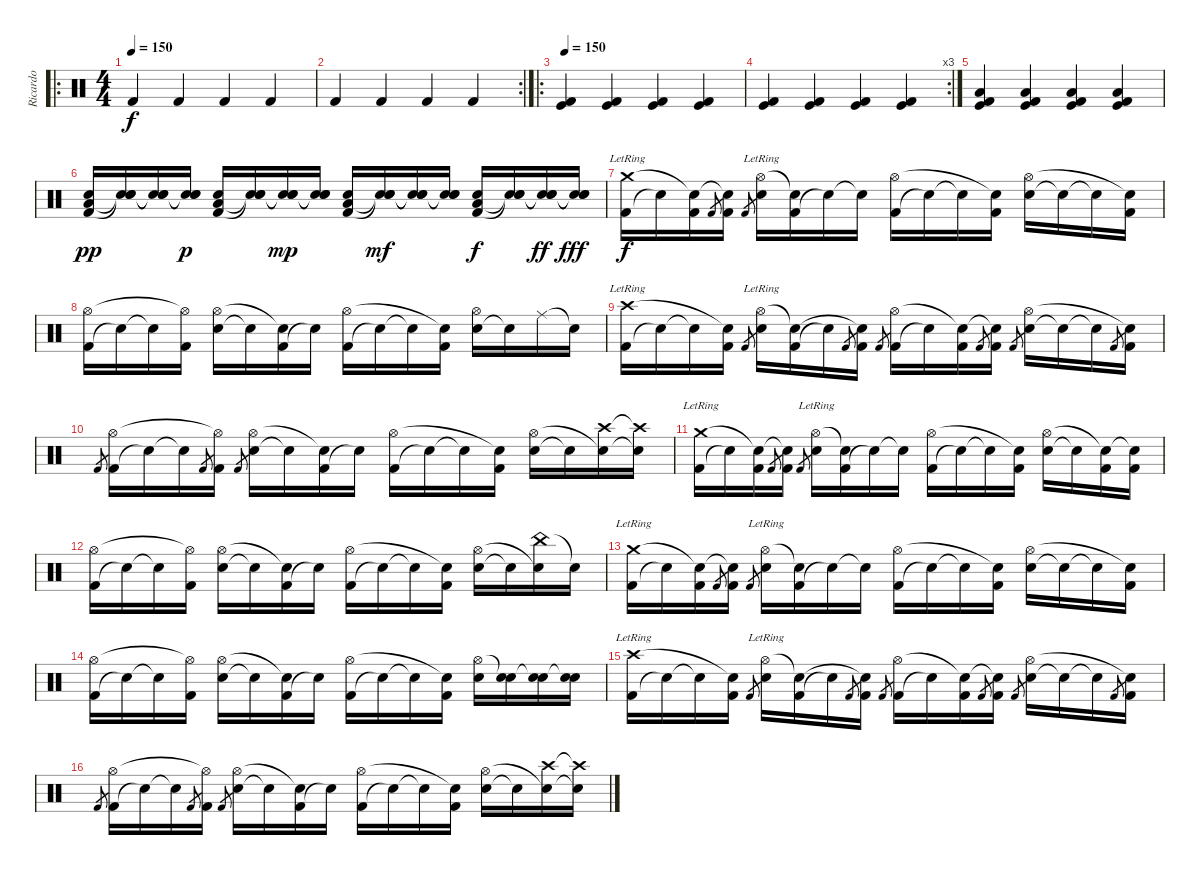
\track ("Ricardo" "Ricardo") {instrument percussion}
\staff {score}
\articulation defaults
\ro
\ts (4 4)
\tempo 150
\clef neutral
\ks c "Kick (hit) 2".4{dy f} "Kick (hit) 2".4 "Kick (hit) 2".4 "Kick (hit) 2".4
|
\rc 2 "Kick (hit) 2".4 "Kick (hit) 2".4 "Kick (hit) 2".4 "Kick (hit) 2".4
|
\ro
\tempo 150
("Kick (hit) 2" "Kick (hit)").4 ("Kick (hit) 2" "Kick (hit)").4 ("Kick (hit) 2" "Kick (hit)").4 ("Kick (hit) 2" "Kick (hit)").4 |
\rc 3
("Kick (hit) 2" "Kick (hit)").4 ("Kick (hit) 2" "Kick (hit)").4 ("Kick (hit) 2" "Kick (hit)").4 ("Kick (hit) 2" "Kick (hit)").4 |
("Kick (hit) 2" "Low Floor Tom (hit)" "Kick (hit)").4 ("Kick (hit) 2" "Low Floor Tom (hit)" "Kick (hit)").4 ("Kick (hit) 2" "Low Floor Tom (hit)" "Kick (hit)").4 ("Kick (hit) 2" "Low Floor Tom (hit)" "Kick (hit)").4 |
("Kick (hit) 2" "Snare (hit) 2" "Low Floor Tom (hit)").16{dy pp} ("Snare (hit)"{t} "Snare (hit) 2" "Snare (hit)"{t}).16 ("Snare (hit)"{t} "Snare (hit) 2" "Snare (hit)"{t}).16 ("Snare (hit)"{t} "Snare (hit) 2" "Snare (hit)"{t}).16{dy p} ("Kick (hit) 2" "Snare (hit) 2" "Low Floor Tom (hit)").16 ("Snare (hit)"{t} "Snare (hit) 2" "Snare (hit)"{t}).16 ("Snare (hit)"{t} "Snare (hit) 2" "Snare (hit)"{t}).16{dy mp} ("Snare (hit)"{t} "Snare (hit) 2" "Snare (hit)"{t}).16 ("Kick (hit) 2" "Snare (hit) 2" "Low Floor Tom (hit)").16 ("Snare (hit)"{t} "Snare (hit) 2" "Snare (hit)"{t}).16{dy mf} ("Snare (hit)"{t} "Snare (hit) 2" "Snare (hit)"{t}).16 ("Snare (hit)"{t} "Snare (hit) 2" "Snare (hit)"{t}).16 ("Kick (hit) 2" "Snare (hit) 2" "Low Floor Tom (hit)").16{dy f} ("Snare (hit)"{t} "Snare (hit) 2" "Snare (hit)"{t}).16 ("Snare (hit)"{t} "Snare (hit) 2" "Snare (hit)"{t}).16{dy ff} ("Snare (hit)"{t} "Snare (hit) 2" "Snare (hit)"{t}).16{dy fff} |
("Kick (hit) 2" "Crash medium (hit)"{lr}).16{dy f} "Snare (hit)"{t}.16 ("Kick (hit) 2" "Snare (hit)"{t}).16 "Kick (hit) 2".8{gr} ("Kick (hit) 2" "Snare (hit)"{t}).16 "Kick (hit) 2".8{gr} ("Snare (hit) 2" "Hi-Hat (open)"{lr}).16 ("Kick (hit) 2" "Snare (hit)"{t}).16 "Snare (hit)"{t}.16 "Snare (hit)"{t}.16 ("Kick (hit) 2" "Hi-Hat (open)").16 "Snare (hit)"{t}.16 "Snare (hit)"{t}.16 ("Kick (hit) 2" "Snare (hit)"{t}).16 ("Snare (hit) 2" "Hi-Hat (open)").16 "Snare (hit)"{t}.16 "Snare (hit)"{t}.16 ("Kick (hit) 2" "Snare (hit)"{t}).16 |
("Kick (hit) 2" "Hi-Hat (open)").16 "Snare (hit)"{t}.16 "Snare (hit)"{t}.16 ("Kick (hit) 2" "Hi-Hat (open)"{t}).16 ("Snare (hit) 2" "Hi-Hat (open)").16 "Snare (hit)"{t}.16 ("Kick (hit) 2" "Snare (hit)"{t}).16 "Snare (hit)"{t}.16 ("Kick (hit) 2" "Hi-Hat (open)").16 "Snare (hit)"{t}.16 "Snare (hit)"{t}.16 ("Kick (hit) 2" "Snare (hit)"{t}).16 ("Snare (hit) 2" "Hi-Hat (open)").16 "Snare (hit)"{t}.16 "Ride (middle)".16 "Snare (hit)"{t}.16 |
("Kick (hit) 2" "Crash high (hit)"{lr}).16 "Snare (hit)"{t}.16 "Snare (hit)"{t}.16 ("Kick (hit) 2" "Snare (hit)"{t}).16 "Kick (hit) 2".8{gr} ("Snare (hit) 2" "Hi-Hat (open)"{lr}).16 ("Kick (hit) 2" "Snare (hit)"{t}).16 "Snare (hit)"{t}.16 "Kick (hit) 2".8{gr} ("Kick (hit) 2" "Snare (hit)"{t}).16 "Kick (hit) 2".8{gr} ("Kick (hit) 2" "Hi-Hat (open)").16 "Snare (hit)"{t}.16 ("Kick (hit) 2" "Snare (hit)"{t}).16 "Kick (hit) 2".8{gr} ("Kick (hit) 2" "Snare (hit)"{t}).16 "Kick (hit) 2".8{gr} ("Snare (hit) 2" "Hi-Hat (open)").16 "Snare (hit)"{t}.16 "Snare (hit)"{t}.16 "Kick (hit) 2".8{gr} ("Kick (hit) 2" "Snare (hit)"{t}).16 |
"Kick (hit) 2".8{gr} ("Kick (hit) 2" "Hi-Hat (open)").16 "Snare (hit)"{t}.16 "Snare (hit)"{t}.16 "Kick (hit) 2".8{gr} ("Kick (hit) 2" "Hi-Hat (open)"{t}).16 "Kick (hit) 2".8{gr} ("Snare (hit) 2" "Hi-Hat (open)").16 "Snare (hit)"{t}.16 ("Kick (hit) 2" "Snare (hit)"{t}).16 "Snare (hit)"{t}.16 ("Kick (hit) 2" "Hi-Hat (open)").16 "Snare (hit)"{t}.16 "Snare (hit)"{t}.16 ("Kick (hit) 2" "Snare (hit)"{t}).16 ("Snare (hit) 2" "Hi-Hat (open)").16 "Snare (hit)"{t}.16 ("Crash high (hit)" "Snare (hit)"{t}).16 ("Crash high (hit)"{t} "Snare (hit)"{t}).16 |
("Kick (hit) 2" "Crash medium (hit)"{lr}).16 "Snare (hit)"{t}.16 ("Kick (hit) 2" "Snare (hit)"{t}).16 "Kick (hit) 2".8{gr} ("Kick (hit) 2" "Snare (hit)"{t}).16 "Kick (hit) 2".8{gr} ("Snare (hit) 2" "Hi-Hat (open)"{lr}).16 ("Kick (hit) 2" "Snare (hit)"{t}).16 "Snare (hit)"{t}.16 "Snare (hit)"{t}.16 ("Kick (hit) 2" "Hi-Hat (open)").16 "Snare (hit)"{t}.16 "Snare (hit)"{t}.16 ("Kick (hit) 2" "Snare (hit)"{t}).16 ("Snare (hit) 2" "Hi-Hat (open)").16 "Snare (hit)"{t}.16 ("Kick (hit) 2" "Snare (hit)"{t}).16 ("Kick (hit) 2" "Snare (hit)"{t}).16 |
("Kick (hit) 2" "Hi-Hat (open)").16 "Snare (hit)"{t}.16 "Snare (hit)"{t}.16 ("Kick (hit) 2" "Hi-Hat (open)"{t}).16 ("Snare (hit) 2" "Hi-Hat (open)").16 "Snare (hit)"{t}.16 ("Kick (hit) 2" "Snare (hit)"{t}).16 "Snare (hit)"{t}.16 ("Kick (hit) 2" "Hi-Hat (open)").16 "Snare (hit)"{t}.16 "Snare (hit)"{t}.16 ("Kick (hit) 2" "Snare (hit)"{t}).16 ("Snare (hit) 2" "Hi-Hat (open)").16 "Snare (hit)"{t}.16 ("China (hit)" "Snare (hit)"{t}).16 "Snare (hit)"{t}.16 |
("Kick (hit) 2" "Crash medium (hit)"{lr}).16 "Snare (hit)"{t}.16 ("Kick (hit) 2" "Snare (hit)"{t}).16 "Kick (hit) 2".8{gr} ("Kick (hit) 2" "Snare (hit)"{t}).16 "Kick (hit) 2".8{gr} ("Snare (hit) 2" "Hi-Hat (open)"{lr}).16 ("Kick (hit) 2" "Snare (hit)"{t}).16 "Snare (hit)"{t}.16 "Snare (hit)"{t}.16 ("Kick (hit) 2" "Hi-Hat (open)").16 "Snare (hit)"{t}.16 "Snare (hit)"{t}.16 ("Kick (hit) 2" "Snare (hit)"{t}).16 ("Snare (hit) 2" "Hi-Hat (open)").16 "Snare (hit)"{t}.16 "Snare (hit)"{t}.16 ("Kick (hit) 2" "Snare (hit)"{t}).16 |
("Kick (hit) 2" "Hi-Hat (open)").16 "Snare (hit)"{t}.16 "Snare (hit)"{t}.16 ("Kick (hit) 2" "Hi-Hat (open)"{t}).16 ("Snare (hit) 2" "Hi-Hat (open)").16 "Snare (hit)"{t}.16 ("Kick (hit) 2" "Snare (hit)"{t}).16 "Snare (hit)"{t}.16 ("Kick (hit) 2" "Hi-Hat (open)").16 "Snare (hit)"{t}.16 "Snare (hit)"{t}.16 ("Kick (hit) 2" "Snare (hit)"{t}).16 ("Snare (hit) 2" "Hi-Hat (open)").16 ("Snare (hit) 2" "Snare (hit)"{t}).16 ("Snare (hit) 2" "Snare (hit)"{t}).16 ("Snare (hit) 2" "Snare (hit)"{t}).16 |
("Kick (hit) 2" "Crash high (hit)"{lr}).16 "Snare (hit)"{t}.16 "Snare (hit)"{t}.16 ("Kick (hit) 2" "Snare (hit)"{t}).16 "Kick (hit) 2".8{gr} ("Snare (hit) 2" "Hi-Hat (open)"{lr}).16 ("Kick (hit) 2" "Snare (hit)"{t}).16 "Snare (hit)"{t}.16 "Kick (hit) 2".8{gr} ("Kick (hit) 2" "Snare (hit)"{t}).16 "Kick (hit) 2".8{gr} ("Kick (hit) 2" "Hi-Hat (open)").16 "Snare (hit)"{t}.16 ("Kick (hit) 2" "Snare (hit)"{t}).16 "Kick (hit) 2".8{gr} ("Kick (hit) 2" "Snare (hit)"{t}).16 "Kick (hit) 2".8{gr} ("Snare (hit) 2" "Hi-Hat (open)").16 "Snare (hit)"{t}.16 "Snare (hit)"{t}.16 "Kick (hit) 2".8{gr} ("Kick (hit) 2" "Snare (hit)"{t}).16 |
"Kick (hit) 2".8{gr} ("Kick (hit) 2" "Hi-Hat (open)").16 "Snare (hit)"{t}.16 "Snare (hit)"{t}.16 "Kick (hit) 2".8{gr} ("Kick (hit) 2" "Hi-Hat (open)"{t}).16 "Kick (hit) 2".8{gr} ("Snare (hit) 2" "Hi-Hat (open)").16 "Snare (hit)"{t}.16 ("Kick (hit) 2" "Snare (hit)"{t}).16 "Snare (hit)"{t}.16 ("Kick (hit) 2" "Hi-Hat (open)").16 "Snare (hit)"{t}.16 "Snare (hit)"{t}.16 ("Kick (hit) 2" "Snare (hit)"{t}).16 ("Snare (hit) 2" "Hi-Hat (open)").16 "Snare (hit)"{t}.16 ("Crash high (hit)" "Snare (hit)"{t}).16 ("Crash high (hit)"{t} "Snare (hit)"{t}).16
